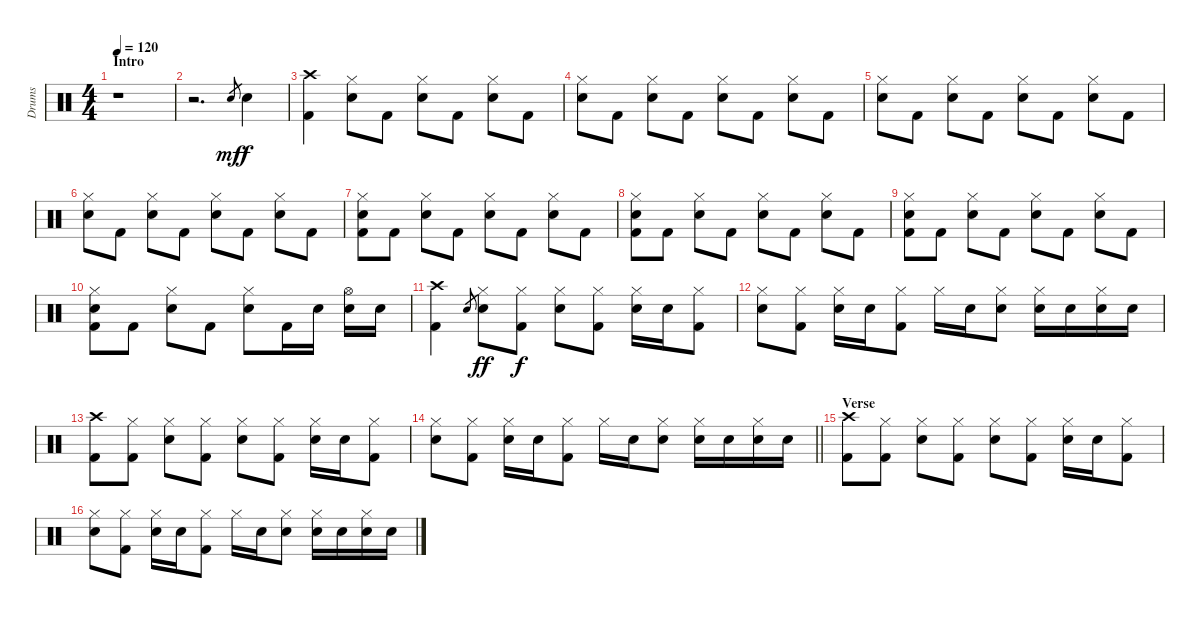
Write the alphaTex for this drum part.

\track ("Drums" "Drums") {instrument percussion}
\staff {score}
\articulation defaults
\ts (4 4)
\section ("" "Intro")
\tempo 120
\clef neutral
\ks c
r.1{dy mf} |
r.2{d} "Electric Snare (hit)".8{gr} "Electric Snare (hit)".4{dy f} |
("Crash high (hit)" "Kick (hit) 2").4 ("Hi-Hat (closed)" "Electric Snare (hit)").8 "Kick (hit) 2".8 ("Hi-Hat (closed)" "Electric Snare (hit)").8 "Kick (hit) 2".8 ("Hi-Hat (closed)" "Electric Snare (hit)").8 "Kick (hit) 2".8 |
("Hi-Hat (closed)" "Electric Snare (hit)").8 "Kick (hit) 2".8 ("Hi-Hat (closed)" "Electric Snare (hit)").8 "Kick (hit) 2".8 ("Hi-Hat (closed)" "Electric Snare (hit)").8 "Kick (hit) 2".8 ("Hi-Hat (closed)" "Electric Snare (hit)").8 "Kick (hit) 2".8 |
("Hi-Hat (closed)" "Electric Snare (hit)").8 "Kick (hit) 2".8 ("Hi-Hat (closed)" "Electric Snare (hit)").8 "Kick (hit) 2".8 ("Hi-Hat (closed)" "Electric Snare (hit)").8 "Kick (hit) 2".8 ("Hi-Hat (closed)" "Electric Snare (hit)").8 "Kick (hit) 2".8 |
("Hi-Hat (closed)" "Electric Snare (hit)").8 "Kick (hit) 2".8 ("Hi-Hat (closed)" "Electric Snare (hit)").8 "Kick (hit) 2".8 ("Hi-Hat (closed)" "Electric Snare (hit)").8 "Kick (hit) 2".8 ("Hi-Hat (closed)" "Electric Snare (hit)").8 "Kick (hit) 2".8 |
("Hi-Hat (closed)" "Electric Snare (hit)" "Kick (hit) 2").8 "Kick (hit) 2".8 ("Hi-Hat (closed)" "Electric Snare (hit)").8 "Kick (hit) 2".8 ("Hi-Hat (closed)" "Electric Snare (hit)").8 "Kick (hit) 2".8 ("Hi-Hat (closed)" "Electric Snare (hit)").8 "Kick (hit) 2".8 |
("Hi-Hat (closed)" "Electric Snare (hit)" "Kick (hit) 2").8 "Kick (hit) 2".8 ("Hi-Hat (closed)" "Electric Snare (hit)").8 "Kick (hit) 2".8 ("Hi-Hat (closed)" "Electric Snare (hit)").8 "Kick (hit) 2".8 ("Hi-Hat (closed)" "Electric Snare (hit)").8 "Kick (hit) 2".8 |
("Hi-Hat (closed)" "Electric Snare (hit)" "Kick (hit) 2").8 "Kick (hit) 2".8 ("Hi-Hat (closed)" "Electric Snare (hit)").8 "Kick (hit) 2".8 ("Hi-Hat (closed)" "Electric Snare (hit)").8 "Kick (hit) 2".8 ("Hi-Hat (closed)" "Electric Snare (hit)").8 "Kick (hit) 2".8 |
("Hi-Hat (closed)" "Electric Snare (hit)" "Kick (hit) 2").8 "Kick (hit) 2".8 ("Hi-Hat (closed)" "Electric Snare (hit)").8 "Kick (hit) 2".8 ("Hi-Hat (closed)" "Electric Snare (hit)").8 "Kick (hit) 2".16 "Electric Snare (hit)".16 ("Hi-Hat (open)" "Electric Snare (hit)").16 "Electric Snare (hit)".16 |
("Crash high (hit)" "Kick (hit) 2").4 "Electric Snare (hit)".8{gr} ("Hi-Hat (closed)" "Electric Snare (hit)").8{dy ff} ("Hi-Hat (closed)" "Kick (hit) 2").8{dy f} ("Hi-Hat (closed)" "Electric Snare (hit)").8 ("Hi-Hat (closed)" "Kick (hit) 2").8 ("Hi-Hat (closed)" "Electric Snare (hit)").16 "Electric Snare (hit)".16 ("Hi-Hat (closed)" "Kick (hit) 2").8 |
("Hi-Hat (closed)" "Electric Snare (hit)").8 ("Hi-Hat (closed)" "Kick (hit) 2").8 ("Hi-Hat (closed)" "Electric Snare (hit)").16 "Electric Snare (hit)".16 ("Hi-Hat (closed)" "Kick (hit) 2").8 "Hi-Hat (closed)".16 "Electric Snare (hit)".16 ("Hi-Hat (closed)" "Electric Snare (hit)").8 ("Hi-Hat (closed)" "Electric Snare (hit)").16 "Electric Snare (hit)".16 ("Hi-Hat (closed)" "Electric Snare (hit)").16 "Electric Snare (hit)".16 |
("Crash high (hit)" "Kick (hit) 2").8 ("Hi-Hat (closed)" "Kick (hit) 2").8 ("Hi-Hat (closed)" "Electric Snare (hit)").8 ("Hi-Hat (closed)" "Kick (hit) 2").8 ("Hi-Hat (closed)" "Electric Snare (hit)").8 ("Hi-Hat (closed)" "Kick (hit) 2").8 ("Hi-Hat (closed)" "Electric Snare (hit)").16 "Electric Snare (hit)".16 ("Hi-Hat (closed)" "Kick (hit) 2").8 |
\barLineRight lightlight
("Hi-Hat (closed)" "Electric Snare (hit)").8 ("Hi-Hat (closed)" "Kick (hit) 2").8 ("Hi-Hat (closed)" "Electric Snare (hit)").16 "Electric Snare (hit)".16 ("Hi-Hat (closed)" "Kick (hit) 2").8 "Hi-Hat (closed)".16 "Electric Snare (hit)".16 ("Hi-Hat (closed)" "Electric Snare (hit)").8 ("Hi-Hat (closed)" "Electric Snare (hit)").16 "Electric Snare (hit)".16 ("Hi-Hat (closed)" "Electric Snare (hit)").16 "Electric Snare (hit)".16 |
\section ("" "Verse")
("Crash high (hit)" "Kick (hit) 2").8 ("Hi-Hat (closed)" "Kick (hit) 2").8 ("Hi-Hat (closed)" "Electric Snare (hit)").8 ("Hi-Hat (closed)" "Kick (hit) 2").8 ("Hi-Hat (closed)" "Electric Snare (hit)").8 ("Hi-Hat (closed)" "Kick (hit) 2").8 ("Hi-Hat (closed)" "Electric Snare (hit)").16 "Electric Snare (hit)".16 ("Hi-Hat (closed)" "Kick (hit) 2").8 |
("Hi-Hat (closed)" "Electric Snare (hit)").8 ("Hi-Hat (closed)" "Kick (hit) 2").8 ("Hi-Hat (closed)" "Electric Snare (hit)").16 "Electric Snare (hit)".16 ("Hi-Hat (closed)" "Kick (hit) 2").8 "Hi-Hat (closed)".16 "Electric Snare (hit)".16 ("Hi-Hat (closed)" "Electric Snare (hit)").8 ("Hi-Hat (closed)" "Electric Snare (hit)").16 "Electric Snare (hit)".16 ("Hi-Hat (closed)" "Electric Snare (hit)").16 "Electric Snare (hit)".16
